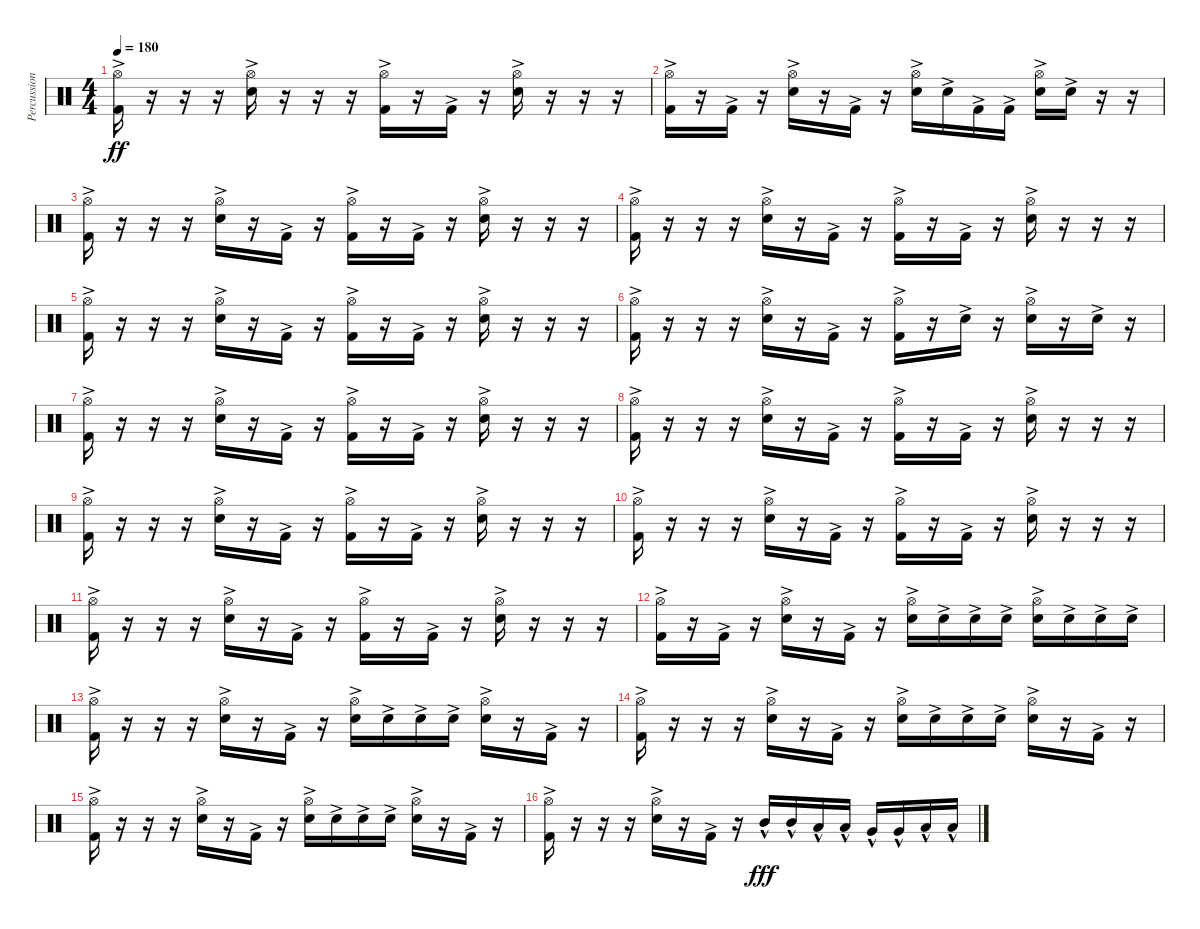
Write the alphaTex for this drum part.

\track ("Percussion" "Percussion") {instrument percussion}
\staff {score}
\articulation defaults
\ts (4 4)
\tempo 180
\clef neutral
\ks c
("Hi-Hat (open)"{ac} "Kick (hit) 2"{ac}).16{dy ff} r.16 r.16 r.16 ("Hi-Hat (open)"{ac} "Snare (hit) 2"{ac}).16 r.16 r.16 r.16 ("Hi-Hat (open)"{ac} "Kick (hit) 2"{ac}).16 r.16 "Kick (hit) 2"{ac}.16 r.16 ("Hi-Hat (open)"{ac} "Snare (hit) 2"{ac}).16 r.16 r.16 r.16 |
("Hi-Hat (open)"{ac} "Kick (hit) 2"{ac}).16 r.16 "Kick (hit) 2"{ac}.16 r.16 ("Hi-Hat (open)"{ac} "Snare (hit) 2"{ac}).16 r.16 "Kick (hit) 2"{ac}.16 r.16 ("Hi-Hat (open)"{ac} "Snare (hit) 2"{ac}).16 "Snare (hit) 2"{ac}.16 "Kick (hit) 2"{ac}.16 "Kick (hit) 2"{ac}.16 ("Hi-Hat (open)"{ac} "Snare (hit) 2"{ac}).16 "Snare (hit) 2"{ac}.16 r.16 r.16 |
("Hi-Hat (open)"{ac} "Kick (hit) 2"{ac}).16 r.16 r.16 r.16 ("Hi-Hat (open)"{ac} "Snare (hit) 2"{ac}).16 r.16 "Kick (hit) 2"{ac}.16 r.16 ("Hi-Hat (open)"{ac} "Kick (hit) 2"{ac}).16 r.16 "Kick (hit) 2"{ac}.16 r.16 ("Hi-Hat (open)"{ac} "Snare (hit) 2"{ac}).16 r.16 r.16 r.16 |
("Hi-Hat (open)"{ac} "Kick (hit) 2"{ac}).16 r.16 r.16 r.16 ("Hi-Hat (open)"{ac} "Snare (hit) 2"{ac}).16 r.16 "Kick (hit) 2"{ac}.16 r.16 ("Hi-Hat (open)"{ac} "Kick (hit) 2"{ac}).16 r.16 "Kick (hit) 2"{ac}.16 r.16 ("Hi-Hat (open)"{ac} "Snare (hit) 2"{ac}).16 r.16 r.16 r.16 |
("Hi-Hat (open)"{ac} "Kick (hit) 2"{ac}).16 r.16 r.16 r.16 ("Hi-Hat (open)"{ac} "Snare (hit) 2"{ac}).16 r.16 "Kick (hit) 2"{ac}.16 r.16 ("Hi-Hat (open)"{ac} "Kick (hit) 2"{ac}).16 r.16 "Kick (hit) 2"{ac}.16 r.16 ("Hi-Hat (open)"{ac} "Snare (hit) 2"{ac}).16 r.16 r.16 r.16 |
("Hi-Hat (open)"{ac} "Kick (hit) 2"{ac}).16 r.16 r.16 r.16 ("Hi-Hat (open)"{ac} "Snare (hit) 2"{ac}).16 r.16 "Kick (hit) 2"{ac}.16 r.16 ("Hi-Hat (open)"{ac} "Kick (hit) 2"{ac}).16 r.16 "Snare (hit) 2"{ac}.16 r.16 ("Hi-Hat (open)"{ac} "Snare (hit) 2"{ac}).16 r.16 "Snare (hit) 2"{ac}.16 r.16 |
("Hi-Hat (open)"{ac} "Kick (hit) 2"{ac}).16 r.16 r.16 r.16 ("Hi-Hat (open)"{ac} "Snare (hit) 2"{ac}).16 r.16 "Kick (hit) 2"{ac}.16 r.16 ("Hi-Hat (open)"{ac} "Kick (hit) 2"{ac}).16 r.16 "Kick (hit) 2"{ac}.16 r.16 ("Hi-Hat (open)"{ac} "Snare (hit) 2"{ac}).16 r.16 r.16 r.16 |
("Hi-Hat (open)"{ac} "Kick (hit) 2"{ac}).16 r.16 r.16 r.16 ("Hi-Hat (open)"{ac} "Snare (hit) 2"{ac}).16 r.16 "Kick (hit) 2"{ac}.16 r.16 ("Hi-Hat (open)"{ac} "Kick (hit) 2"{ac}).16 r.16 "Kick (hit) 2"{ac}.16 r.16 ("Hi-Hat (open)"{ac} "Snare (hit) 2"{ac}).16 r.16 r.16 r.16 |
("Hi-Hat (open)"{ac} "Kick (hit) 2"{ac}).16 r.16 r.16 r.16 ("Hi-Hat (open)"{ac} "Snare (hit) 2"{ac}).16 r.16 "Kick (hit) 2"{ac}.16 r.16 ("Hi-Hat (open)"{ac} "Kick (hit) 2"{ac}).16 r.16 "Kick (hit) 2"{ac}.16 r.16 ("Hi-Hat (open)"{ac} "Snare (hit) 2"{ac}).16 r.16 r.16 r.16 |
("Hi-Hat (open)"{ac} "Kick (hit) 2"{ac}).16 r.16 r.16 r.16 ("Hi-Hat (open)"{ac} "Snare (hit) 2"{ac}).16 r.16 "Kick (hit) 2"{ac}.16 r.16 ("Hi-Hat (open)"{ac} "Kick (hit) 2"{ac}).16 r.16 "Kick (hit) 2"{ac}.16 r.16 ("Hi-Hat (open)"{ac} "Snare (hit) 2"{ac}).16 r.16 r.16 r.16 |
("Hi-Hat (open)"{ac} "Kick (hit) 2"{ac}).16 r.16 r.16 r.16 ("Hi-Hat (open)"{ac} "Snare (hit) 2"{ac}).16 r.16 "Kick (hit) 2"{ac}.16 r.16 ("Hi-Hat (open)"{ac} "Kick (hit) 2"{ac}).16 r.16 "Kick (hit) 2"{ac}.16 r.16 ("Hi-Hat (open)"{ac} "Snare (hit) 2"{ac}).16 r.16 r.16 r.16 |
("Hi-Hat (open)"{ac} "Kick (hit) 2"{ac}).16 r.16 "Kick (hit) 2"{ac}.16 r.16 ("Hi-Hat (open)"{ac} "Snare (hit) 2"{ac}).16 r.16 "Kick (hit) 2"{ac}.16 r.16 ("Hi-Hat (open)"{ac} "Snare (hit) 2"{ac}).16 "Snare (hit) 2"{ac}.16 "Snare (hit) 2"{ac}.16 "Snare (hit) 2"{ac}.16 ("Hi-Hat (open)"{ac} "Snare (hit) 2"{ac}).16 "Snare (hit) 2"{ac}.16 "Snare (hit) 2"{ac}.16 "Snare (hit) 2"{ac}.16 |
("Hi-Hat (open)"{ac} "Kick (hit) 2"{ac}).16 r.16 r.16 r.16 ("Hi-Hat (open)"{ac} "Snare (hit) 2"{ac}).16 r.16 "Kick (hit) 2"{ac}.16 r.16 ("Hi-Hat (open)"{ac} "Snare (hit) 2"{ac}).16 "Snare (hit) 2"{ac}.16 "Snare (hit) 2"{ac}.16 "Snare (hit) 2"{ac}.16 ("Hi-Hat (open)"{ac} "Snare (hit) 2"{ac}).16 r.16 "Kick (hit) 2"{ac}.16 r.16 |
("Hi-Hat (open)"{ac} "Kick (hit) 2"{ac}).16 r.16 r.16 r.16 ("Hi-Hat (open)"{ac} "Snare (hit) 2"{ac}).16 r.16 "Kick (hit) 2"{ac}.16 r.16 ("Hi-Hat (open)"{ac} "Snare (hit) 2"{ac}).16 "Snare (hit) 2"{ac}.16 "Snare (hit) 2"{ac}.16 "Snare (hit) 2"{ac}.16 ("Hi-Hat (open)"{ac} "Snare (hit) 2"{ac}).16 r.16 "Kick (hit) 2"{ac}.16 r.16 |
("Hi-Hat (open)"{ac} "Kick (hit) 2"{ac}).16 r.16 r.16 r.16 ("Hi-Hat (open)"{ac} "Snare (hit) 2"{ac}).16 r.16 "Kick (hit) 2"{ac}.16 r.16 ("Hi-Hat (open)"{ac} "Snare (hit) 2"{ac}).16 "Snare (hit) 2"{ac}.16 "Snare (hit) 2"{ac}.16 "Snare (hit) 2"{ac}.16 ("Hi-Hat (open)"{ac} "Snare (hit) 2"{ac}).16 r.16 "Kick (hit) 2"{ac}.16 r.16 |
("Hi-Hat (open)"{ac} "Kick (hit) 2"{ac}).16 r.16 r.16 r.16 ("Hi-Hat (open)"{ac} "Snare (hit) 2"{ac}).16 r.16 "Kick (hit) 2"{ac}.16 r.16 "Mid Tom (hit)"{hac}.16{dy fff} "Mid Tom (hit)"{hac}.16 "Low Tom (hit)"{hac}.16 "Low Tom (hit)"{hac}.16 "Very Low Tom (hit)"{hac}.16 "Very Low Tom (hit)"{hac}.16 "Low Floor Tom (hit)"{hac}.16 "Low Floor Tom (hit)"{hac}.16
